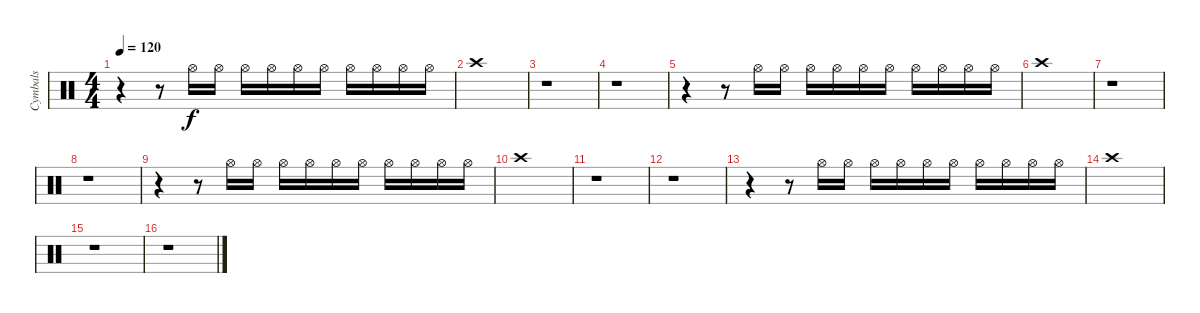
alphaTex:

\track ("Cymbals" "Cymbals") {instrument percussion}
\staff {score}
\articulation defaults
\ts (4 4)
\tempo 120
\clef neutral
\ks c
r.4{dy f} r.8 "Hi-Hat (open)".16 "Hi-Hat (open)".16 "Hi-Hat (open)".16 "Hi-Hat (open)".16 "Hi-Hat (open)".16 "Hi-Hat (open)".16 "Hi-Hat (open)".16 "Hi-Hat (open)".16 "Hi-Hat (open)".16 "Hi-Hat (open)".16 |
"Crash high (hit)".1 |
r.1 |
r.1 |
r.4 r.8 "Hi-Hat (open)".16 "Hi-Hat (open)".16 "Hi-Hat (open)".16 "Hi-Hat (open)".16 "Hi-Hat (open)".16 "Hi-Hat (open)".16 "Hi-Hat (open)".16 "Hi-Hat (open)".16 "Hi-Hat (open)".16 "Hi-Hat (open)".16 |
"Crash high (hit)".1 |
r.1 |
r.1 |
r.4 r.8 "Hi-Hat (open)".16 "Hi-Hat (open)".16 "Hi-Hat (open)".16 "Hi-Hat (open)".16 "Hi-Hat (open)".16 "Hi-Hat (open)".16 "Hi-Hat (open)".16 "Hi-Hat (open)".16 "Hi-Hat (open)".16 "Hi-Hat (open)".16 |
"Crash high (hit)".1 |
r.1 |
r.1 |
r.4 r.8 "Hi-Hat (open)".16 "Hi-Hat (open)".16 "Hi-Hat (open)".16 "Hi-Hat (open)".16 "Hi-Hat (open)".16 "Hi-Hat (open)".16 "Hi-Hat (open)".16 "Hi-Hat (open)".16 "Hi-Hat (open)".16 "Hi-Hat (open)".16 |
"Crash high (hit)".1 |
r.1 |
r.1
